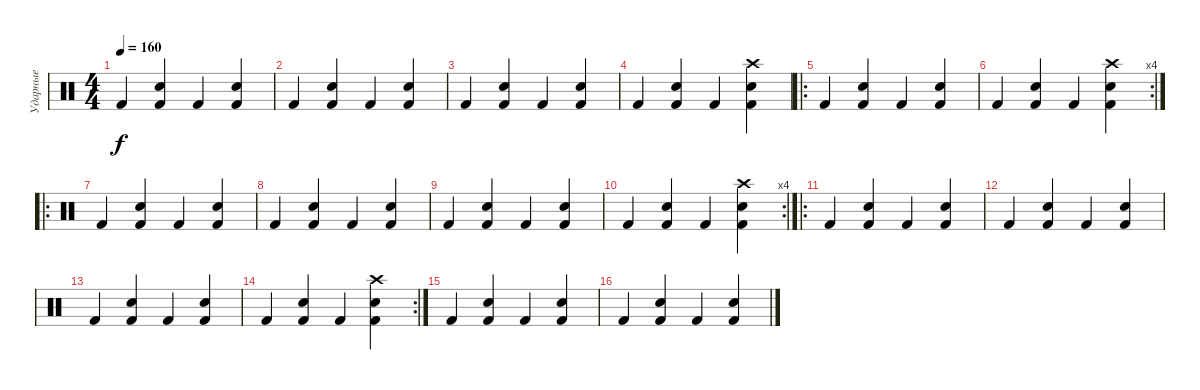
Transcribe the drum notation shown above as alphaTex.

\track ("Ударные" "Ударные") {instrument percussion}
\staff {score}
\articulation defaults
\ts (4 4)
\tempo 160
\clef neutral
\ks c "Kick (hit) 2".4{dy f}
("Kick (hit) 2" "Snare (hit) 2").4 "Kick (hit) 2".4 ("Kick (hit) 2" "Snare (hit) 2").4 |
"Kick (hit) 2".4 ("Kick (hit) 2" "Snare (hit) 2").4 "Kick (hit) 2".4 ("Kick (hit) 2" "Snare (hit) 2").4 |
"Kick (hit) 2".4 ("Kick (hit) 2" "Snare (hit) 2").4 "Kick (hit) 2".4 ("Kick (hit) 2" "Snare (hit) 2").4 |
"Kick (hit) 2".4 ("Kick (hit) 2" "Snare (hit) 2").4 "Kick (hit) 2".4 ("Kick (hit) 2" "Snare (hit) 2" "Crash high (hit)").4 |
\ro "Kick (hit) 2".4
("Kick (hit) 2" "Snare (hit) 2").4 "Kick (hit) 2".4 ("Kick (hit) 2" "Snare (hit) 2").4 |
\rc 4 "Kick (hit) 2".4
("Kick (hit) 2" "Snare (hit) 2").4 "Kick (hit) 2".4 ("Kick (hit) 2" "Snare (hit) 2" "Crash high (hit)").4 |
\ro "Kick (hit) 2".4
("Kick (hit) 2" "Snare (hit) 2").4 "Kick (hit) 2".4 ("Kick (hit) 2" "Snare (hit) 2").4 |
"Kick (hit) 2".4 ("Kick (hit) 2" "Snare (hit) 2").4 "Kick (hit) 2".4 ("Kick (hit) 2" "Snare (hit) 2").4 |
"Kick (hit) 2".4 ("Kick (hit) 2" "Snare (hit) 2").4 "Kick (hit) 2".4 ("Kick (hit) 2" "Snare (hit) 2").4 |
\rc 4 "Kick (hit) 2".4
("Kick (hit) 2" "Snare (hit) 2").4 "Kick (hit) 2".4 ("Kick (hit) 2" "Snare (hit) 2" "Crash high (hit)").4 |
\ro "Kick (hit) 2".4
("Kick (hit) 2" "Snare (hit) 2").4 "Kick (hit) 2".4 ("Kick (hit) 2" "Snare (hit) 2").4 |
"Kick (hit) 2".4 ("Kick (hit) 2" "Snare (hit) 2").4 "Kick (hit) 2".4 ("Kick (hit) 2" "Snare (hit) 2").4 |
"Kick (hit) 2".4 ("Kick (hit) 2" "Snare (hit) 2").4 "Kick (hit) 2".4 ("Kick (hit) 2" "Snare (hit) 2").4 |
\rc 2 "Kick (hit) 2".4
("Kick (hit) 2" "Snare (hit) 2").4 "Kick (hit) 2".4 ("Kick (hit) 2" "Snare (hit) 2" "Crash high (hit)").4 |
"Kick (hit) 2".4 ("Kick (hit) 2" "Snare (hit) 2").4 "Kick (hit) 2".4 ("Kick (hit) 2" "Snare (hit) 2").4 |
"Kick (hit) 2".4 ("Kick (hit) 2" "Snare (hit) 2").4 "Kick (hit) 2".4 ("Kick (hit) 2" "Snare (hit) 2").4
